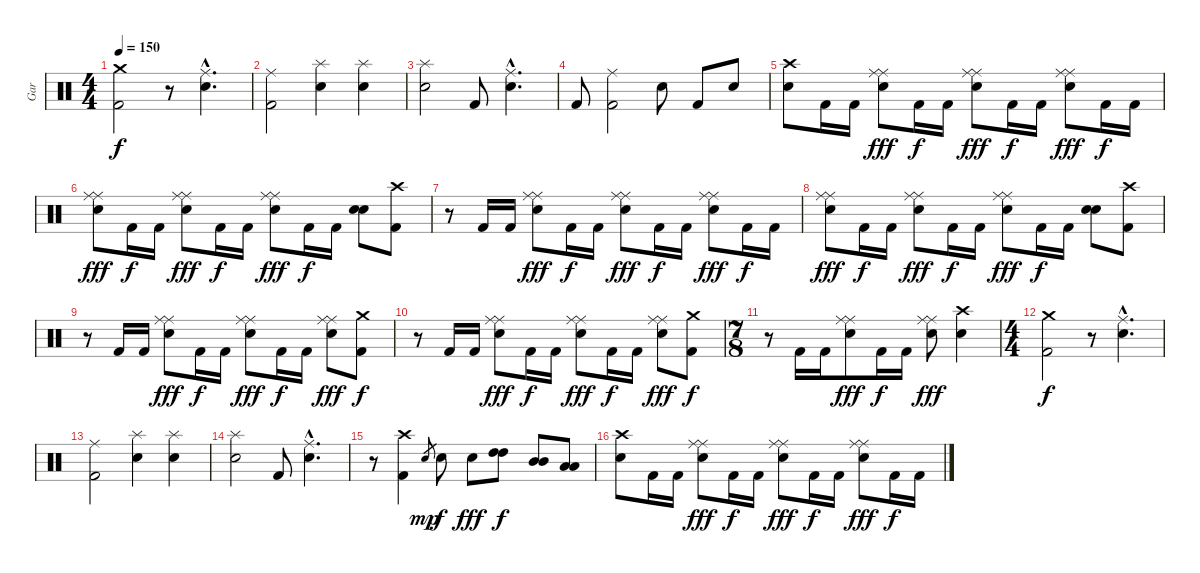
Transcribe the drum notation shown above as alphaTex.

\track ("Gar" "Gar") {instrument percussion}
\staff {score}
\articulation defaults
\ts (4 4)
\tempo 150
\clef neutral
\ks c
("Crash medium (hit)" "Kick (hit) 2").2{dy f} r.8 ("Ride (middle)"{hac} "Snare (hit) 2"{hac}).4{d} |
("Ride (middle)" "Kick (hit) 2").2 ("Splash (hit)" "Snare (hit) 2").4 ("Splash (hit)" "Snare (hit) 2").4 |
("Splash (hit)" "Snare (hit) 2").2 "Kick (hit) 2".8 ("Ride (middle)"{hac} "Snare (hit) 2"{hac}).4{d} |
"Kick (hit) 2".8 ("Ride (middle)" "Kick (hit) 2").2 "Snare (hit) 2".8 "Kick (hit) 2".8 "Snare (hit) 2".8 |
("Crash high (hit)" "Snare (hit) 2").8 "Kick (hit) 2".16 "Kick (hit) 2".16 ("Ride (middle)" "Ride (middle)" "Snare (hit) 2").8{dy fff} "Kick (hit) 2".16{dy f} "Kick (hit) 2".16 ("Ride (middle)" "Ride (middle)" "Snare (hit) 2").8{dy fff} "Kick (hit) 2".16{dy f} "Kick (hit) 2".16 ("Ride (middle)" "Ride (middle)" "Snare (hit) 2").8{dy fff} "Kick (hit) 2".16{dy f} "Kick (hit) 2".16 |
("Ride (middle)" "Ride (middle)" "Snare (hit) 2").8{dy fff} "Kick (hit) 2".16{dy f} "Kick (hit) 2".16 ("Ride (middle)" "Ride (middle)" "Snare (hit) 2").8{dy fff} "Kick (hit) 2".16{dy f} "Kick (hit) 2".16 ("Ride (middle)" "Ride (middle)" "Snare (hit) 2").8{dy fff} "Kick (hit) 2".16{dy f} "Kick (hit) 2".16 ("Snare (hit) 2" "Snare (hit) 2").8 ("Crash high (hit)" "Kick (hit) 2").8 |
r.8 "Kick (hit) 2".16 "Kick (hit) 2".16 ("Ride (middle)" "Ride (middle)" "Snare (hit) 2").8{dy fff} "Kick (hit) 2".16{dy f} "Kick (hit) 2".16 ("Ride (middle)" "Ride (middle)" "Snare (hit) 2").8{dy fff} "Kick (hit) 2".16{dy f} "Kick (hit) 2".16 ("Ride (middle)" "Ride (middle)" "Snare (hit) 2").8{dy fff} "Kick (hit) 2".16{dy f} "Kick (hit) 2".16 |
("Ride (middle)" "Ride (middle)" "Snare (hit) 2").8{dy fff} "Kick (hit) 2".16{dy f} "Kick (hit) 2".16 ("Ride (middle)" "Ride (middle)" "Snare (hit) 2").8{dy fff} "Kick (hit) 2".16{dy f} "Kick (hit) 2".16 ("Ride (middle)" "Ride (middle)" "Snare (hit) 2").8{dy fff} "Kick (hit) 2".16{dy f} "Kick (hit) 2".16 ("Snare (hit) 2" "Snare (hit) 2").8 ("Crash high (hit)" "Kick (hit) 2").8 |
r.8 "Kick (hit) 2".16 "Kick (hit) 2".16 ("Ride (middle)" "Ride (middle)" "Snare (hit) 2").8{dy fff} "Kick (hit) 2".16{dy f} "Kick (hit) 2".16 ("Ride (middle)" "Ride (middle)" "Snare (hit) 2").8{dy fff} "Kick (hit) 2".16{dy f} "Kick (hit) 2".16 ("Ride (middle)" "Ride (middle)" "Snare (hit) 2").8{dy fff} ("Crash medium (hit)" "Kick (hit) 2").8{dy f} |
r.8 "Kick (hit) 2".16 "Kick (hit) 2".16 ("Ride (middle)" "Ride (middle)" "Snare (hit) 2").8{dy fff} "Kick (hit) 2".16{dy f} "Kick (hit) 2".16 ("Ride (middle)" "Ride (middle)" "Snare (hit) 2").8{dy fff} "Kick (hit) 2".16{dy f} "Kick (hit) 2".16 ("Ride (middle)" "Ride (middle)" "Snare (hit) 2").8{dy fff} ("Crash medium (hit)" "Kick (hit) 2").8{dy f} |
\ts (7 8)
r.8 "Kick (hit) 2".16 "Kick (hit) 2".16 ("Ride (middle)" "Ride (middle)" "Snare (hit) 2").8{dy fff} "Kick (hit) 2".16{dy f} "Kick (hit) 2".16 ("Ride (middle)" "Ride (middle)" "Snare (hit) 2").8{dy fff} ("Crash high (hit)" "Snare (hit) 2").4 |
\ts (4 4)
("Crash medium (hit)" "Kick (hit) 2").2{dy f} r.8 ("Ride (middle)"{hac} "Snare (hit) 2"{hac}).4{d} |
("Ride (middle)" "Kick (hit) 2").2 ("Splash (hit)" "Snare (hit) 2").4 ("Splash (hit)" "Snare (hit) 2").4 |
("Splash (hit)" "Snare (hit) 2").2 "Kick (hit) 2".8 ("Ride (middle)"{hac} "Snare (hit) 2"{hac}).4{d} |
r.8 ("Crash high (hit)" "Kick (hit) 2").4 "Snare (hit) 2".8{gr dy mp} "Snare (hit) 2".8{dy f} "Snare (hit) 2".8{dy fff} ("High Tom (hit)" "High Tom (hit)").8{dy f} ("Mid Tom (hit)" "Mid Tom (hit)").8 ("Low Tom (hit)" "Low Tom (hit)").8 |
("Crash high (hit)" "Snare (hit) 2").8 "Kick (hit) 2".16 "Kick (hit) 2".16 ("Ride (middle)" "Ride (middle)" "Snare (hit) 2").8{dy fff} "Kick (hit) 2".16{dy f} "Kick (hit) 2".16 ("Ride (middle)" "Ride (middle)" "Snare (hit) 2").8{dy fff} "Kick (hit) 2".16{dy f} "Kick (hit) 2".16 ("Ride (middle)" "Ride (middle)" "Snare (hit) 2").8{dy fff} "Kick (hit) 2".16{dy f} "Kick (hit) 2".16
